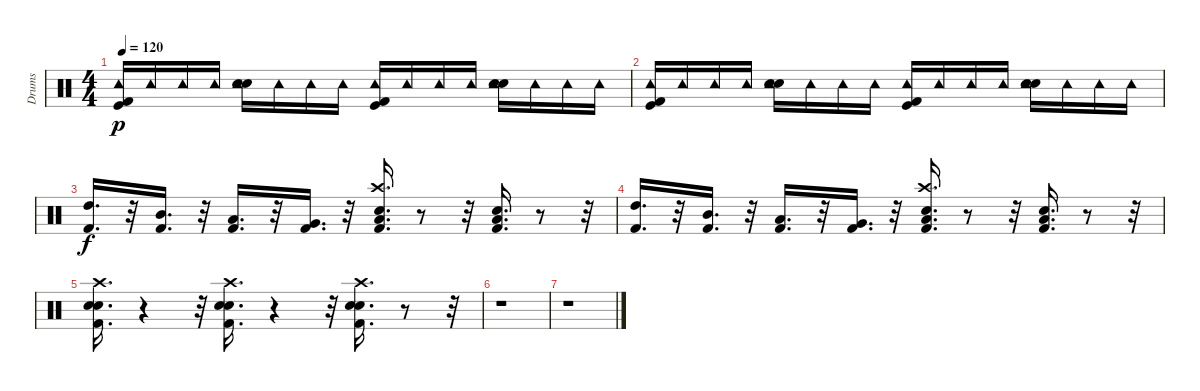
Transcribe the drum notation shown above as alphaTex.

\track ("Drums" "Drums") {instrument percussion}
\staff {score}
\articulation defaults
\ts (4 4)
\tempo 120
\clef neutral
\ks c
("Kick (hit) 2" "Tambourine (hit)" "Kick (hit)").16{dy p} "Tambourine (hit)".16 "Tambourine (hit)".16 "Tambourine (hit)".16 ("Snare (hit) 2" "Tambourine (hit)" "Electric Snare (hit)").16 "Tambourine (hit)".16 "Tambourine (hit)".16 "Tambourine (hit)".16 ("Kick (hit) 2" "Tambourine (hit)" "Kick (hit)").16 "Tambourine (hit)".16 "Tambourine (hit)".16 "Tambourine (hit)".16 ("Snare (hit) 2" "Tambourine (hit)" "Electric Snare (hit)").16 "Tambourine (hit)".16 "Tambourine (hit)".16 "Tambourine (hit)".16 |
("Kick (hit) 2" "Tambourine (hit)" "Kick (hit)").16 "Tambourine (hit)".16 "Tambourine (hit)".16 "Tambourine (hit)".16 ("Snare (hit) 2" "Tambourine (hit)" "Electric Snare (hit)").16 "Tambourine (hit)".16 "Tambourine (hit)".16 "Tambourine (hit)".16 ("Kick (hit) 2" "Tambourine (hit)" "Kick (hit)").16 "Tambourine (hit)".16 "Tambourine (hit)".16 "Tambourine (hit)".16 ("Snare (hit) 2" "Tambourine (hit)" "Electric Snare (hit)").16 "Tambourine (hit)".16 "Tambourine (hit)".16 "Tambourine (hit)".16 |
("Kick (hit) 2" "High Tom (hit)").16{d dy f} r.32 ("Kick (hit) 2" "Mid Tom (hit)").16{d} r.32 ("Kick (hit) 2" "Low Tom (hit)").16{d} r.32 ("Kick (hit) 2" "Very Low Tom (hit)").16{d} r.32 ("Kick (hit) 2" "Electric Snare (hit)" "Crash high (hit)" "Low Floor Tom (hit)").16{d} r.8 r.32 ("Kick (hit) 2" "Electric Snare (hit)" "Low Floor Tom (hit)").16{d} r.8 r.32 |
("Kick (hit) 2" "High Tom (hit)").16{d} r.32 ("Kick (hit) 2" "Mid Tom (hit)").16{d} r.32 ("Kick (hit) 2" "Low Tom (hit)").16{d} r.32 ("Kick (hit) 2" "Very Low Tom (hit)").16{d} r.32 ("Kick (hit) 2" "Electric Snare (hit)" "Crash high (hit)" "Low Floor Tom (hit)").16{d} r.8 r.32 ("Kick (hit) 2" "Electric Snare (hit)" "Low Floor Tom (hit)").16{d} r.8 r.32 |
("Kick (hit) 2" "Snare (hit) 2" "Electric Snare (hit)" "Crash high (hit)").16{d} r.4 r.32 ("Crash high (hit)" "Kick (hit) 2" "Snare (hit) 2" "Electric Snare (hit)").16{d} r.4 r.32 ("Crash high (hit)" "Kick (hit) 2" "Snare (hit) 2" "Electric Snare (hit)").16{d} r.8 r.32 |
r.1 |
r.1
